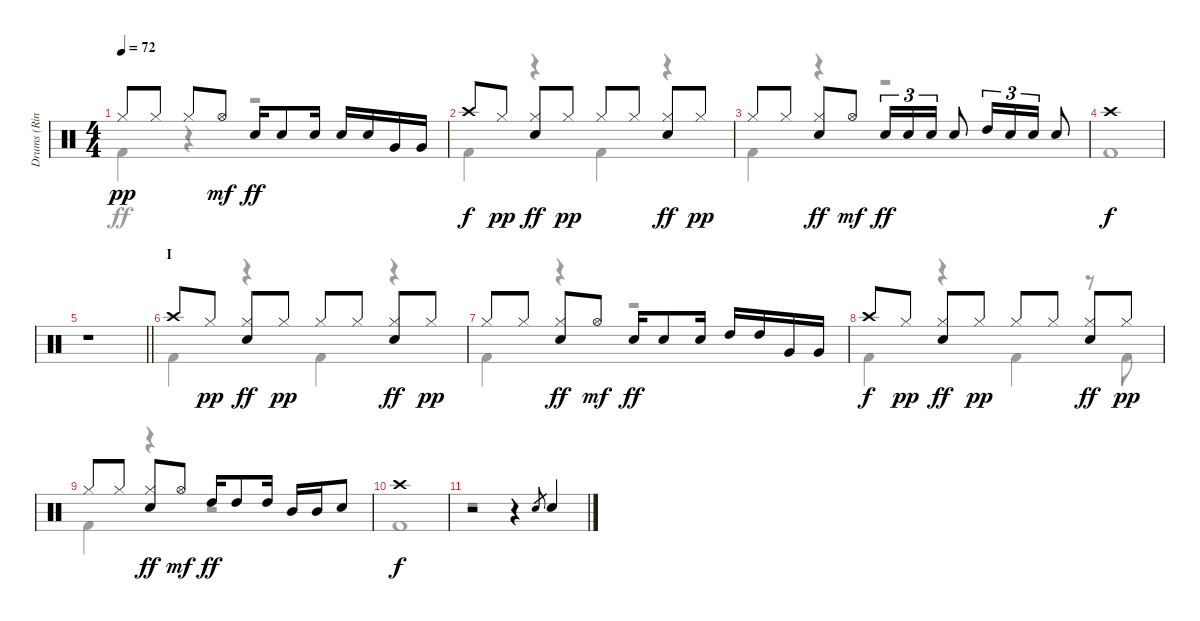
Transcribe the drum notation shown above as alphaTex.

\track ("Drums (Ringo Starr)" "Drums (Rin") {instrument percussion}
\staff {score}
\articulation defaults
\voice
\ts (4 4)
\tempo 72
\clef neutral
\ks c "Hi-Hat (closed)".8{dy pp} "Hi-Hat (closed)".8 "Hi-Hat (closed)".8 "Hi-Hat (open)".8{dy mf} "Snare (hit) 2".16{dy ff} "Snare (hit) 2".8 "Snare (hit) 2".16 "Snare (hit) 2".16 "Snare (hit) 2".16 "Very Low Tom (hit)".16 "Very Low Tom (hit)".16
|
"Crash high (hit)".8{dy f} "Hi-Hat (closed)".8{dy pp} ("Hi-Hat (closed)" "Snare (hit) 2").8{dy ff} "Hi-Hat (closed)".8{dy pp} "Hi-Hat (closed)".8 "Hi-Hat (closed)".8 ("Hi-Hat (closed)" "Snare (hit) 2").8{dy ff} "Hi-Hat (closed)".8{dy pp} |
"Hi-Hat (closed)".8 "Hi-Hat (closed)".8 ("Hi-Hat (closed)" "Snare (hit) 2").8{dy ff} "Hi-Hat (open)".8{dy mf} "Snare (hit) 2".16{tu (3 2) dy ff} "Snare (hit) 2".16{tu (3 2)} "Snare (hit) 2".16{tu (3 2)} "Snare (hit) 2".8 "High Tom (hit)".16{tu (3 2)} "Snare (hit) 2".16{tu (3 2)} "Snare (hit) 2".16{tu (3 2)} "Snare (hit) 2".8 |
"Crash high (hit)".1{dy f} |
\barLineRight lightlight
r.1 |
\section ("" "I")
"Crash high (hit)".8 "Hi-Hat (closed)".8{dy pp} ("Hi-Hat (closed)" "Snare (hit) 2").8{dy ff} "Hi-Hat (closed)".8{dy pp} "Hi-Hat (closed)".8 "Hi-Hat (closed)".8 ("Hi-Hat (closed)" "Snare (hit) 2").8{dy ff} "Hi-Hat (closed)".8{dy pp} |
"Hi-Hat (closed)".8 "Hi-Hat (closed)".8 ("Hi-Hat (closed)" "Snare (hit) 2").8{dy ff} "Hi-Hat (open)".8{dy mf} "Snare (hit) 2".16{dy ff} "Snare (hit) 2".8 "Snare (hit) 2".16 "High Tom (hit)".16 "High Tom (hit)".16 "Very Low Tom (hit)".16 "Very Low Tom (hit)".16 |
"Crash high (hit)".8{dy f} "Hi-Hat (closed)".8{dy pp} ("Hi-Hat (closed)" "Snare (hit) 2").8{dy ff} "Hi-Hat (closed)".8{dy pp} "Hi-Hat (closed)".8 "Hi-Hat (closed)".8 ("Hi-Hat (closed)" "Snare (hit) 2").8{dy ff} "Hi-Hat (closed)".8{dy pp} |
"Hi-Hat (closed)".8 "Hi-Hat (closed)".8 ("Hi-Hat (closed)" "Snare (hit) 2").8{dy ff} "Hi-Hat (open)".8{dy mf} "High Tom (hit)".16{dy ff} "High Tom (hit)".8 "High Tom (hit)".16 "Mid Tom (hit)".16 "Mid Tom (hit)".16 "Snare (hit) 2".8 |
"Crash high (hit)".1{dy f} |
r.2 r.4 "Snare (hit) 2"{h}.8{gr} "Snare (hit) 2".4
\voice
\clef neutral
\ottava regular
\simile none
\ks c "Kick (hit) 2".4{dy ff}
r.4 r.2 |
"Kick (hit) 2".4 r.4 "Kick (hit) 2".4 r.4 |
"Kick (hit) 2".4 r.4 r.2 |
"Kick (hit) 2".1 |
\barLineRight lightlight
r.1 |
"Kick (hit) 2".4 r.4 "Kick (hit) 2".4 r.4 |
"Kick (hit) 2".4 r.4 r.2 |
"Kick (hit) 2".4 r.4 "Kick (hit) 2".4 r.8 "Kick (hit) 2".8 |
"Kick (hit) 2".4 r.4 r.2 |
"Kick (hit) 2".1 |
r.1
